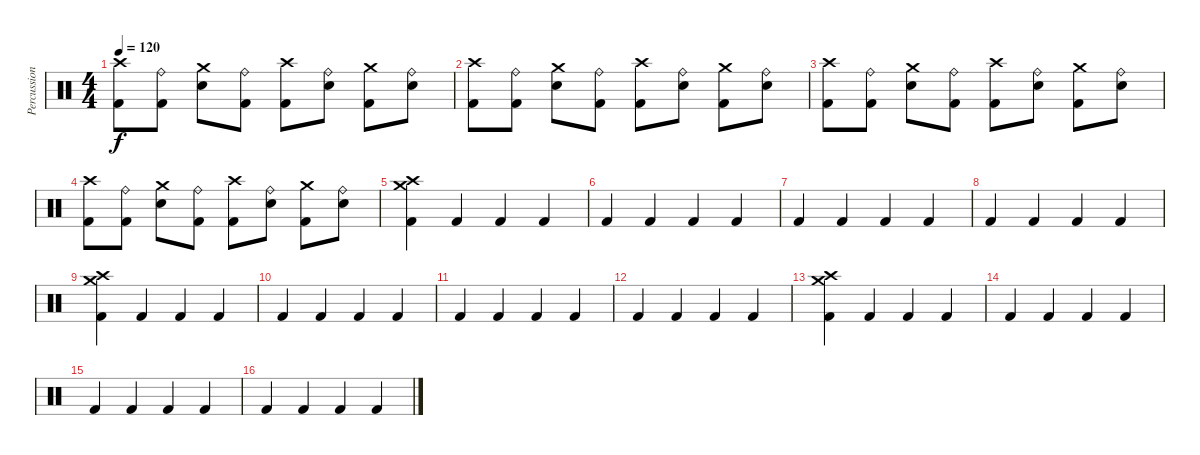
\track ("Percussion" "Percussion") {instrument percussion}
\staff {score}
\articulation defaults
\ts (4 4)
\tempo 120
\clef neutral
\ks c
("Crash high (hit)" "Kick (hit) 2").8{dy f} ("Ride (bell)" "Kick (hit) 2").8 ("Crash medium (hit)" "Snare (hit) 2").8 ("Ride (bell)" "Kick (hit) 2").8 ("Crash high (hit)" "Kick (hit) 2").8 ("Ride (bell)" "Snare (hit) 2").8 ("Crash medium (hit)" "Kick (hit) 2").8 ("Ride (bell)" "Snare (hit) 2").8 |
("Crash high (hit)" "Kick (hit) 2").8 ("Ride (bell)" "Kick (hit) 2").8 ("Crash medium (hit)" "Snare (hit) 2").8 ("Ride (bell)" "Kick (hit) 2").8 ("Crash high (hit)" "Kick (hit) 2").8 ("Ride (bell)" "Snare (hit) 2").8 ("Crash medium (hit)" "Kick (hit) 2").8 ("Ride (bell)" "Snare (hit) 2").8 |
("Crash high (hit)" "Kick (hit) 2").8 ("Ride (bell)" "Kick (hit) 2").8 ("Crash medium (hit)" "Snare (hit) 2").8 ("Ride (bell)" "Kick (hit) 2").8 ("Crash high (hit)" "Kick (hit) 2").8 ("Ride (bell)" "Snare (hit) 2").8 ("Crash medium (hit)" "Kick (hit) 2").8 ("Ride (bell)" "Snare (hit) 2").8 |
("Crash high (hit)" "Kick (hit) 2").8 ("Ride (bell)" "Kick (hit) 2").8 ("Crash medium (hit)" "Snare (hit) 2").8 ("Ride (bell)" "Kick (hit) 2").8 ("Crash high (hit)" "Kick (hit) 2").8 ("Ride (bell)" "Snare (hit) 2").8 ("Crash medium (hit)" "Kick (hit) 2").8 ("Ride (bell)" "Snare (hit) 2").8 |
("Crash high (hit)" "Crash medium (hit)" "Kick (hit) 2").4 "Kick (hit) 2".4 "Kick (hit) 2".4 "Kick (hit) 2".4 |
"Kick (hit) 2".4 "Kick (hit) 2".4 "Kick (hit) 2".4 "Kick (hit) 2".4 |
"Kick (hit) 2".4 "Kick (hit) 2".4 "Kick (hit) 2".4 "Kick (hit) 2".4 |
"Kick (hit) 2".4 "Kick (hit) 2".4 "Kick (hit) 2".4 "Kick (hit) 2".4 |
("Crash high (hit)" "Crash medium (hit)" "Kick (hit) 2").4 "Kick (hit) 2".4 "Kick (hit) 2".4 "Kick (hit) 2".4 |
"Kick (hit) 2".4 "Kick (hit) 2".4 "Kick (hit) 2".4 "Kick (hit) 2".4 |
"Kick (hit) 2".4 "Kick (hit) 2".4 "Kick (hit) 2".4 "Kick (hit) 2".4 |
"Kick (hit) 2".4 "Kick (hit) 2".4 "Kick (hit) 2".4 "Kick (hit) 2".4 |
("Crash high (hit)" "Crash medium (hit)" "Kick (hit) 2").4 "Kick (hit) 2".4 "Kick (hit) 2".4 "Kick (hit) 2".4 |
"Kick (hit) 2".4 "Kick (hit) 2".4 "Kick (hit) 2".4 "Kick (hit) 2".4 |
"Kick (hit) 2".4 "Kick (hit) 2".4 "Kick (hit) 2".4 "Kick (hit) 2".4 |
"Kick (hit) 2".4 "Kick (hit) 2".4 "Kick (hit) 2".4 "Kick (hit) 2".4
